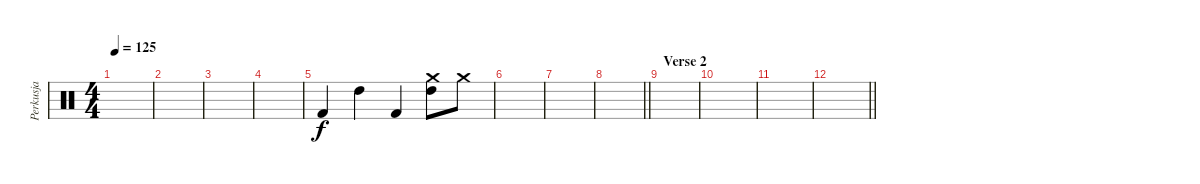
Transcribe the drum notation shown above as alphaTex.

\track ("Perkusja" "Perkusja") {instrument percussion}
\staff {score}
\articulation defaults
\ts (4 4)
\tempo 125
\clef neutral
\ks c
|
|
|
|
"Kick (hit) 2".4 "High Tom (hit)".4 "Kick (hit) 2".4 ("High Tom (hit)" "Crash medium (hit)").8 "Crash medium (hit)".8 |
|
|
\barLineRight lightlight
|
\section ("" "Verse 2")
|
|
|
\barLineRight lightlight
